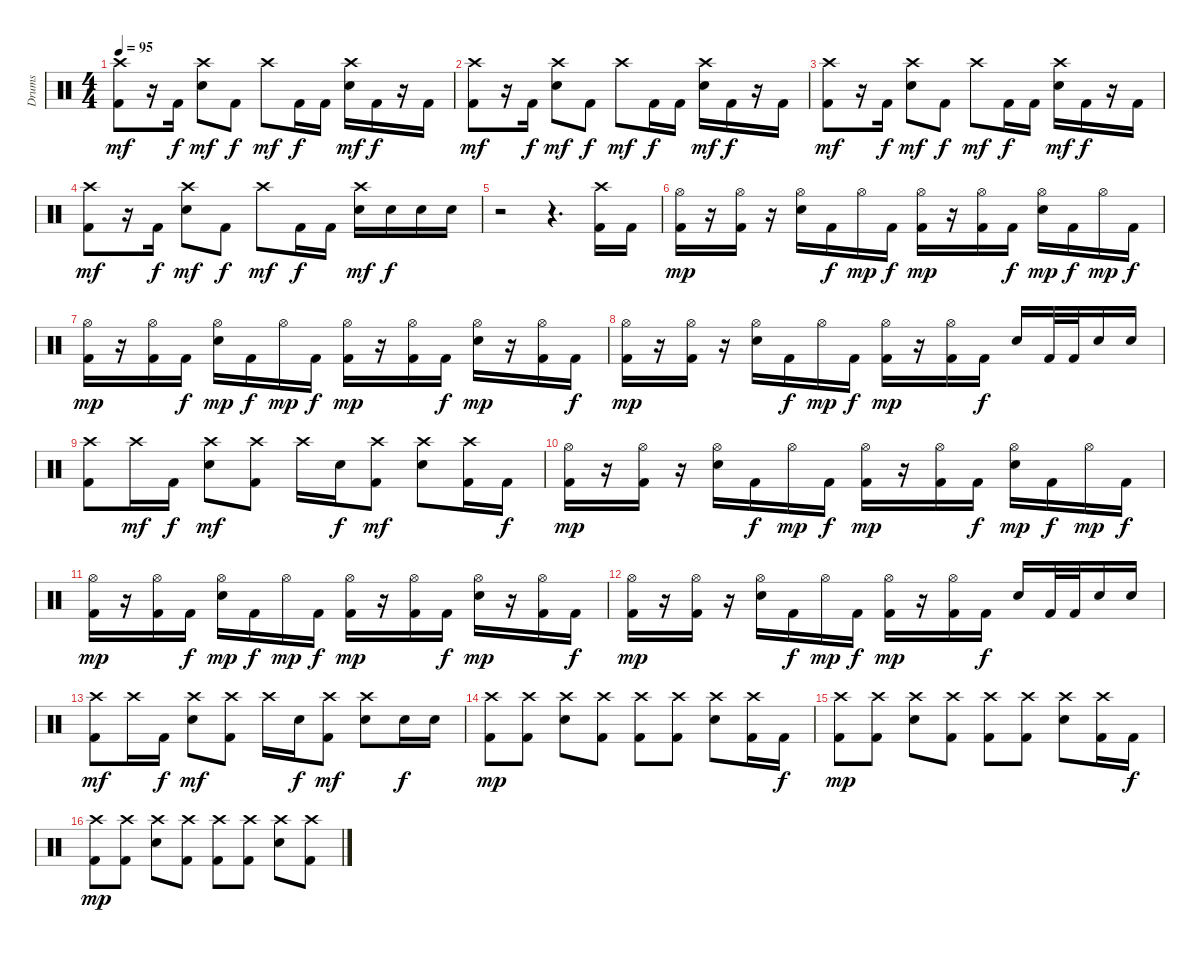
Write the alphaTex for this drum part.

\track ("Drums" "Drums") {instrument percussion}
\staff {score}
\articulation defaults
\ts (4 4)
\tempo 95
\clef neutral
\ks c
("Crash high (hit)" "Kick (hit) 2").8{dy mf} r.16 "Kick (hit) 2".16{dy f} ("Crash high (hit)" "Electric Snare (hit)").8{dy mf} "Kick (hit) 2".8{dy f} "Crash high (hit)".8{dy mf} "Kick (hit) 2".16{dy f} "Kick (hit) 2".16 ("Crash high (hit)" "Electric Snare (hit)").16{dy mf} "Kick (hit) 2".16{dy f} r.16 "Kick (hit) 2".16 |
("Crash high (hit)" "Kick (hit) 2").8{dy mf} r.16 "Kick (hit) 2".16{dy f} ("Crash high (hit)" "Electric Snare (hit)").8{dy mf} "Kick (hit) 2".8{dy f} "Crash high (hit)".8{dy mf} "Kick (hit) 2".16{dy f} "Kick (hit) 2".16 ("Crash high (hit)" "Electric Snare (hit)").16{dy mf} "Kick (hit) 2".16{dy f} r.16 "Kick (hit) 2".16 |
("Crash high (hit)" "Kick (hit) 2").8{dy mf} r.16 "Kick (hit) 2".16{dy f} ("Crash high (hit)" "Electric Snare (hit)").8{dy mf} "Kick (hit) 2".8{dy f} "Crash high (hit)".8{dy mf} "Kick (hit) 2".16{dy f} "Kick (hit) 2".16 ("Crash high (hit)" "Electric Snare (hit)").16{dy mf} "Kick (hit) 2".16{dy f} r.16 "Kick (hit) 2".16 |
("Crash high (hit)" "Kick (hit) 2").8{dy mf} r.16 "Kick (hit) 2".16{dy f} ("Crash high (hit)" "Electric Snare (hit)").8{dy mf} "Kick (hit) 2".8{dy f} "Crash high (hit)".8{dy mf} "Kick (hit) 2".16{dy f} "Kick (hit) 2".16 ("Crash high (hit)" "Electric Snare (hit)").16{dy mf} "Electric Snare (hit)".16{dy f} "Electric Snare (hit)".16 "Electric Snare (hit)".16 |
r.2 r.4{d} ("Crash high (hit)" "Kick (hit) 2").16 "Kick (hit) 2".16 |
("Hi-Hat (open)" "Kick (hit) 2").16{dy mp} r.16 ("Hi-Hat (open)" "Kick (hit) 2").16 r.16 ("Hi-Hat (open)" "Electric Snare (hit)").16 "Kick (hit) 2".16{dy f} "Hi-Hat (open)".16{dy mp} "Kick (hit) 2".16{dy f} ("Hi-Hat (open)" "Kick (hit) 2").16{dy mp} r.16 ("Hi-Hat (open)" "Kick (hit) 2").16 "Kick (hit) 2".16{dy f} ("Hi-Hat (open)" "Electric Snare (hit)").16{dy mp} "Kick (hit) 2".16{dy f} "Hi-Hat (open)".16{dy mp} "Kick (hit) 2".16{dy f} |
("Hi-Hat (open)" "Kick (hit) 2").16{dy mp} r.16 ("Hi-Hat (open)" "Kick (hit) 2").16 "Kick (hit) 2".16{dy f} ("Hi-Hat (open)" "Electric Snare (hit)").16{dy mp} "Kick (hit) 2".16{dy f} "Hi-Hat (open)".16{dy mp} "Kick (hit) 2".16{dy f} ("Hi-Hat (open)" "Kick (hit) 2").16{dy mp} r.16 ("Hi-Hat (open)" "Kick (hit) 2").16 "Kick (hit) 2".16{dy f} ("Hi-Hat (open)" "Electric Snare (hit)").16{dy mp} r.16 ("Hi-Hat (open)" "Kick (hit) 2").16 "Kick (hit) 2".16{dy f} |
("Hi-Hat (open)" "Kick (hit) 2").16{dy mp} r.16 ("Hi-Hat (open)" "Kick (hit) 2").16 r.16 ("Hi-Hat (open)" "Electric Snare (hit)").16 "Kick (hit) 2".16{dy f} "Hi-Hat (open)".16{dy mp} "Kick (hit) 2".16{dy f} ("Hi-Hat (open)" "Kick (hit) 2").16{dy mp} r.16 ("Hi-Hat (open)" "Kick (hit) 2").16 "Kick (hit) 2".16{dy f} "Electric Snare (hit)".16 "Kick (hit) 2".32 "Kick (hit) 2".32 "Electric Snare (hit)".16 "Electric Snare (hit)".16 |
("Crash high (hit)" "Kick (hit) 2").8 "Crash high (hit)".16{dy mf} "Kick (hit) 2".16{dy f} ("Crash high (hit)" "Electric Snare (hit)").8{dy mf} ("Crash high (hit)" "Kick (hit) 2").8 "Crash high (hit)".16 "Electric Snare (hit)".16{dy f} ("Crash high (hit)" "Kick (hit) 2").8{dy mf} ("Crash high (hit)" "Electric Snare (hit)").8 ("Crash high (hit)" "Kick (hit) 2").16 "Kick (hit) 2".16{dy f} |
("Hi-Hat (open)" "Kick (hit) 2").16{dy mp} r.16 ("Hi-Hat (open)" "Kick (hit) 2").16 r.16 ("Hi-Hat (open)" "Electric Snare (hit)").16 "Kick (hit) 2".16{dy f} "Hi-Hat (open)".16{dy mp} "Kick (hit) 2".16{dy f} ("Hi-Hat (open)" "Kick (hit) 2").16{dy mp} r.16 ("Hi-Hat (open)" "Kick (hit) 2").16 "Kick (hit) 2".16{dy f} ("Hi-Hat (open)" "Electric Snare (hit)").16{dy mp} "Kick (hit) 2".16{dy f} "Hi-Hat (open)".16{dy mp} "Kick (hit) 2".16{dy f} |
("Hi-Hat (open)" "Kick (hit) 2").16{dy mp} r.16 ("Hi-Hat (open)" "Kick (hit) 2").16 "Kick (hit) 2".16{dy f} ("Hi-Hat (open)" "Electric Snare (hit)").16{dy mp} "Kick (hit) 2".16{dy f} "Hi-Hat (open)".16{dy mp} "Kick (hit) 2".16{dy f} ("Hi-Hat (open)" "Kick (hit) 2").16{dy mp} r.16 ("Hi-Hat (open)" "Kick (hit) 2").16 "Kick (hit) 2".16{dy f} ("Hi-Hat (open)" "Electric Snare (hit)").16{dy mp} r.16 ("Hi-Hat (open)" "Kick (hit) 2").16 "Kick (hit) 2".16{dy f} |
("Hi-Hat (open)" "Kick (hit) 2").16{dy mp} r.16 ("Hi-Hat (open)" "Kick (hit) 2").16 r.16 ("Hi-Hat (open)" "Electric Snare (hit)").16 "Kick (hit) 2".16{dy f} "Hi-Hat (open)".16{dy mp} "Kick (hit) 2".16{dy f} ("Hi-Hat (open)" "Kick (hit) 2").16{dy mp} r.16 ("Hi-Hat (open)" "Kick (hit) 2").16 "Kick (hit) 2".16{dy f} "Electric Snare (hit)".16 "Kick (hit) 2".32 "Kick (hit) 2".32 "Electric Snare (hit)".16 "Electric Snare (hit)".16 |
("Crash high (hit)" "Kick (hit) 2").8{dy mf} "Crash high (hit)".16 "Kick (hit) 2".16{dy f} ("Crash high (hit)" "Electric Snare (hit)").8{dy mf} ("Crash high (hit)" "Kick (hit) 2").8 "Crash high (hit)".16 "Electric Snare (hit)".16{dy f} ("Crash high (hit)" "Kick (hit) 2").8{dy mf} ("Crash high (hit)" "Electric Snare (hit)").8 "Electric Snare (hit)".16{dy f} "Electric Snare (hit)".16 |
("Crash high (hit)" "Kick (hit) 2").8{dy mp} ("Crash high (hit)" "Kick (hit) 2").8 ("Crash high (hit)" "Electric Snare (hit)").8 ("Crash high (hit)" "Kick (hit) 2").8 ("Crash high (hit)" "Kick (hit) 2").8 ("Crash high (hit)" "Kick (hit) 2").8 ("Crash high (hit)" "Electric Snare (hit)").8 ("Crash high (hit)" "Kick (hit) 2").16 "Kick (hit) 2".16{dy f} |
("Crash high (hit)" "Kick (hit) 2").8{dy mp} ("Crash high (hit)" "Kick (hit) 2").8 ("Crash high (hit)" "Electric Snare (hit)").8 ("Crash high (hit)" "Kick (hit) 2").8 ("Crash high (hit)" "Kick (hit) 2").8 ("Crash high (hit)" "Kick (hit) 2").8 ("Crash high (hit)" "Electric Snare (hit)").8 ("Crash high (hit)" "Kick (hit) 2").16 "Kick (hit) 2".16{dy f} |
("Crash high (hit)" "Kick (hit) 2").8{dy mp} ("Crash high (hit)" "Kick (hit) 2").8 ("Crash high (hit)" "Electric Snare (hit)").8 ("Crash high (hit)" "Kick (hit) 2").8 ("Crash high (hit)" "Kick (hit) 2").8 ("Crash high (hit)" "Kick (hit) 2").8 ("Crash high (hit)" "Electric Snare (hit)").8 ("Crash high (hit)" "Kick (hit) 2").8
